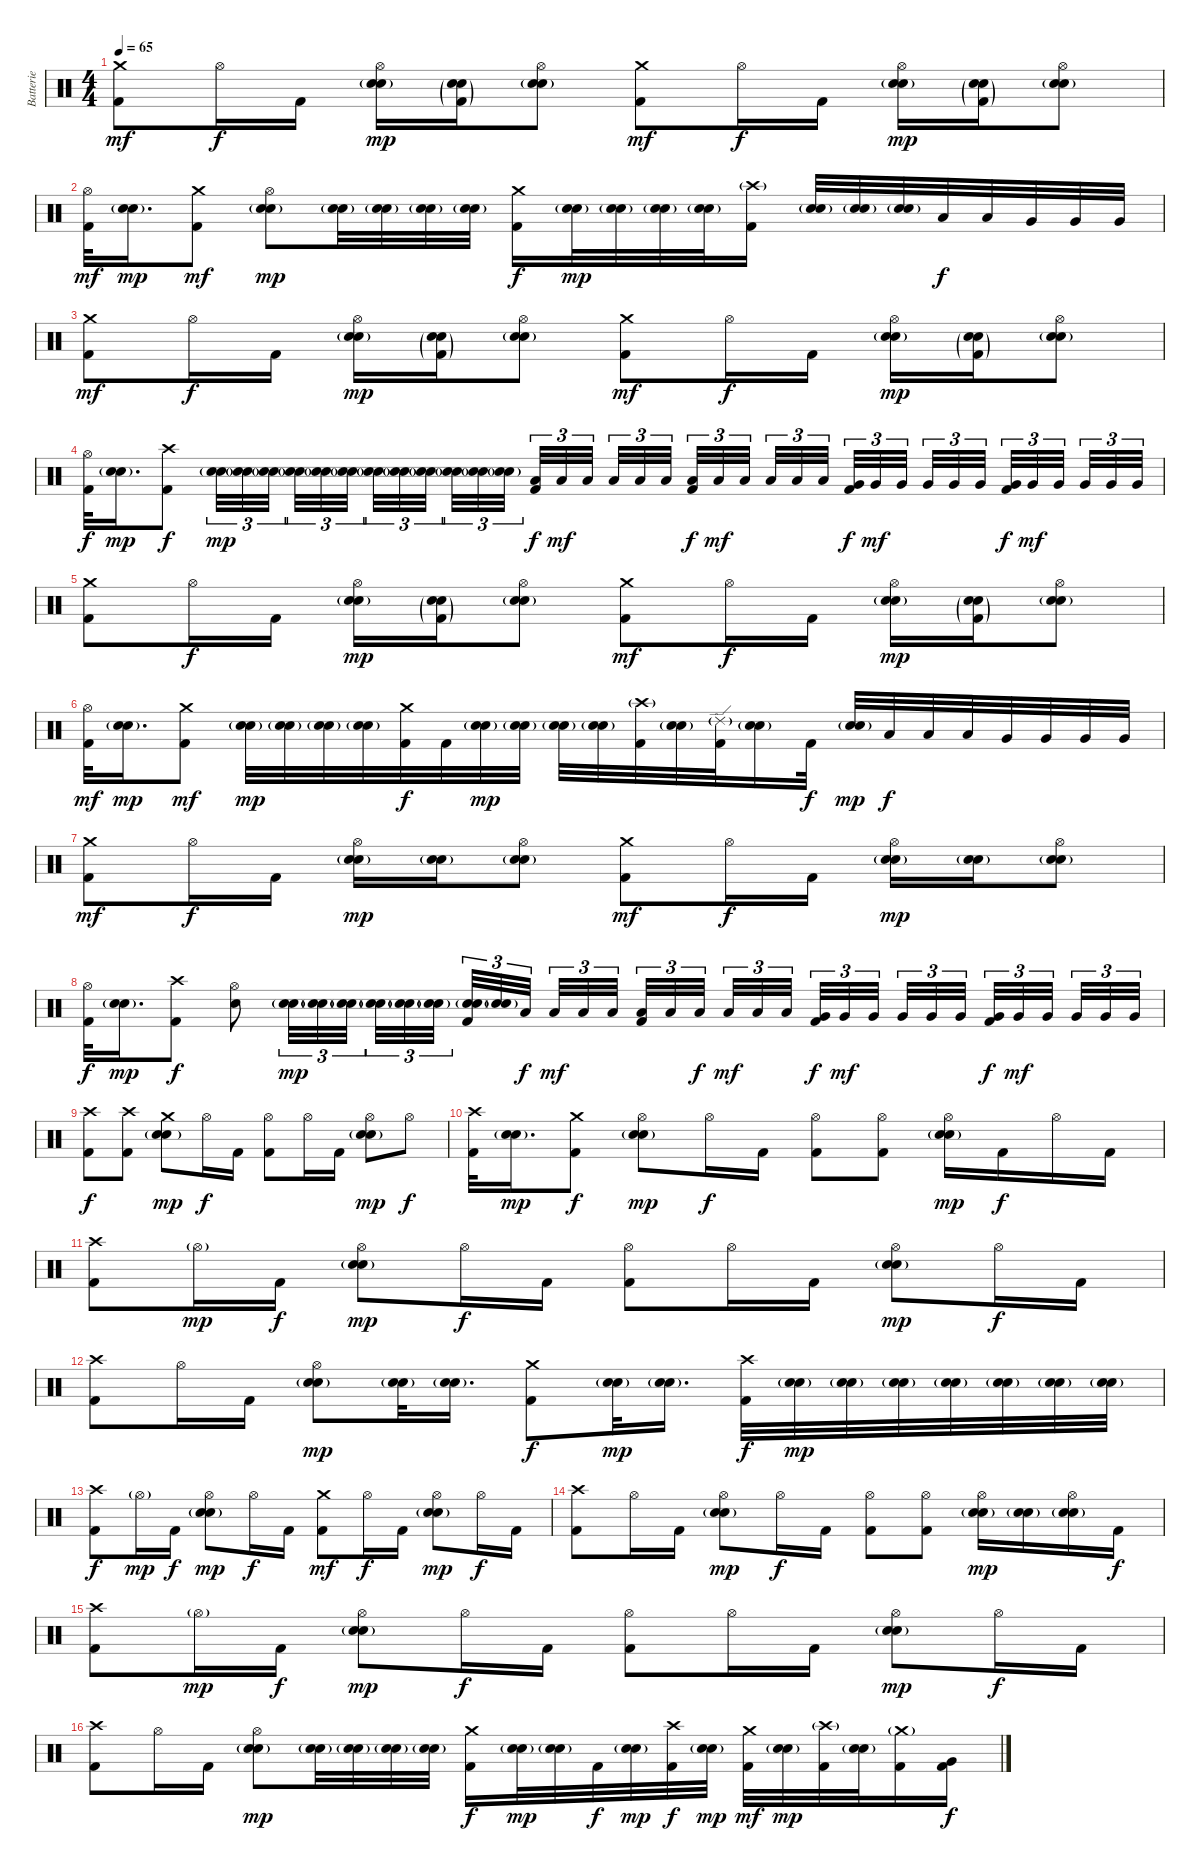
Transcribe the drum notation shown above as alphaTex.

\track ("Batterie" "Batterie") {instrument percussion}
\staff {score}
\articulation defaults
\ts (4 4)
\tempo 65
\clef neutral
\ks c
("Crash medium (hit)" "Kick (hit) 2").8{dy mf} "Hi-Hat (open)".16{dy f} "Kick (hit) 2".16 ("Hi-Hat (open)" "Electric Snare (hit)" "Snare (hit) 2"{g}).16{dy mp} ("Electric Snare (hit)" "Snare (hit) 2"{g} "Kick (hit) 2"{g}).16 ("Hi-Hat (open)" "Electric Snare (hit)" "Snare (hit) 2"{g}).8 ("Crash medium (hit)" "Kick (hit) 2").8{dy mf} "Hi-Hat (open)".16{dy f} "Kick (hit) 2".16 ("Hi-Hat (open)" "Electric Snare (hit)" "Snare (hit) 2"{g}).16{dy mp} ("Electric Snare (hit)" "Snare (hit) 2"{g} "Kick (hit) 2"{g}).16 ("Hi-Hat (open)" "Electric Snare (hit)" "Snare (hit) 2"{g}).8 |
("Hi-Hat (open)" "Kick (hit) 2").32{dy mf} ("Electric Snare (hit)" "Snare (hit) 2"{g}).16{d dy mp} ("Crash medium (hit)" "Kick (hit) 2").8{dy mf} ("Hi-Hat (open)" "Electric Snare (hit)" "Snare (hit) 2"{g}).8{dy mp} ("Electric Snare (hit)" "Snare (hit) 2"{g}).32 ("Electric Snare (hit)" "Snare (hit) 2"{g}).32 ("Electric Snare (hit)" "Snare (hit) 2"{g}).32 ("Electric Snare (hit)" "Snare (hit) 2"{g}).32 ("Crash medium (hit)" "Kick (hit) 2").16{dy f} ("Electric Snare (hit)" "Snare (hit) 2"{g}).32{dy mp} ("Electric Snare (hit)" "Snare (hit) 2"{g}).32 ("Electric Snare (hit)" "Snare (hit) 2"{g}).32 ("Electric Snare (hit)" "Snare (hit) 2"{g}).32 ("Crash high (hit)"{g} "Kick (hit) 2").16 ("Electric Snare (hit)" "Snare (hit) 2"{g}).32 ("Electric Snare (hit)" "Snare (hit) 2"{g}).32 ("Electric Snare (hit)" "Snare (hit) 2"{g}).32 "Low Tom (hit)".32{dy f} "Low Tom (hit)".32 "Very Low Tom (hit)".32 "Very Low Tom (hit)".32 "Very Low Tom (hit)".32 |
("Crash medium (hit)" "Kick (hit) 2").8{dy mf} "Hi-Hat (open)".16{dy f} "Kick (hit) 2".16 ("Hi-Hat (open)" "Electric Snare (hit)" "Snare (hit) 2"{g}).16{dy mp} ("Electric Snare (hit)" "Snare (hit) 2"{g} "Kick (hit) 2"{g}).16 ("Hi-Hat (open)" "Electric Snare (hit)" "Snare (hit) 2"{g}).8 ("Crash medium (hit)" "Kick (hit) 2").8{dy mf} "Hi-Hat (open)".16{dy f} "Kick (hit) 2".16 ("Hi-Hat (open)" "Electric Snare (hit)" "Snare (hit) 2"{g}).16{dy mp} ("Electric Snare (hit)" "Snare (hit) 2"{g} "Kick (hit) 2"{g}).16 ("Hi-Hat (open)" "Electric Snare (hit)" "Snare (hit) 2"{g}).8 |
("Hi-Hat (open)" "Kick (hit) 2").32{dy f} ("Electric Snare (hit)" "Snare (hit) 2"{g}).16{d dy mp} ("Crash high (hit)" "Kick (hit) 2").8{dy f} ("Electric Snare (hit)" "Snare (hit) 2"{g}).32{tu (3 2) dy mp} ("Electric Snare (hit)" "Snare (hit) 2"{g}).32{tu (3 2)} ("Electric Snare (hit)" "Snare (hit) 2"{g}).32{tu (3 2)} ("Electric Snare (hit)" "Snare (hit) 2"{g}).32{tu (3 2)} ("Electric Snare (hit)" "Snare (hit) 2"{g}).32{tu (3 2)} ("Electric Snare (hit)" "Snare (hit) 2"{g}).32{tu (3 2)} ("Electric Snare (hit)" "Snare (hit) 2"{g}).32{tu (3 2)} ("Electric Snare (hit)" "Snare (hit) 2"{g}).32{tu (3 2)} ("Electric Snare (hit)" "Snare (hit) 2"{g}).32{tu (3 2)} ("Electric Snare (hit)" "Snare (hit) 2"{g}).32{tu (3 2)} ("Electric Snare (hit)" "Snare (hit) 2"{g}).32{tu (3 2)} ("Electric Snare (hit)" "Snare (hit) 2"{g}).32{tu (3 2)} ("Low Tom (hit)" "Kick (hit) 2").32{tu (3 2) dy f} "Low Tom (hit)".32{tu (3 2) dy mf} "Low Tom (hit)".32{tu (3 2)} "Low Tom (hit)".32{tu (3 2)} "Low Tom (hit)".32{tu (3 2)} "Low Tom (hit)".32{tu (3 2)} ("Low Tom (hit)" "Kick (hit) 2").32{tu (3 2) dy f} "Low Tom (hit)".32{tu (3 2) dy mf} "Low Tom (hit)".32{tu (3 2)} "Low Tom (hit)".32{tu (3 2)} "Low Tom (hit)".32{tu (3 2)} "Low Tom (hit)".32{tu (3 2)} ("Very Low Tom (hit)" "Kick (hit) 2").32{tu (3 2) dy f} "Very Low Tom (hit)".32{tu (3 2) dy mf} "Very Low Tom (hit)".32{tu (3 2)} "Very Low Tom (hit)".32{tu (3 2)} "Very Low Tom (hit)".32{tu (3 2)} "Very Low Tom (hit)".32{tu (3 2)} ("Very Low Tom (hit)" "Kick (hit) 2").32{tu (3 2) dy f} "Very Low Tom (hit)".32{tu (3 2) dy mf} "Very Low Tom (hit)".32{tu (3 2)} "Very Low Tom (hit)".32{tu (3 2)} "Very Low Tom (hit)".32{tu (3 2)} "Very Low Tom (hit)".32{tu (3 2)} |
("Crash medium (hit)" "Kick (hit) 2").8 "Hi-Hat (open)".16{dy f} "Kick (hit) 2".16 ("Hi-Hat (open)" "Electric Snare (hit)" "Snare (hit) 2"{g}).16{dy mp} ("Electric Snare (hit)" "Snare (hit) 2"{g} "Kick (hit) 2"{g}).16 ("Hi-Hat (open)" "Electric Snare (hit)" "Snare (hit) 2"{g}).8 ("Crash medium (hit)" "Kick (hit) 2").8{dy mf} "Hi-Hat (open)".16{dy f} "Kick (hit) 2".16 ("Hi-Hat (open)" "Electric Snare (hit)" "Snare (hit) 2"{g}).16{dy mp} ("Electric Snare (hit)" "Snare (hit) 2"{g} "Kick (hit) 2"{g}).16 ("Hi-Hat (open)" "Electric Snare (hit)" "Snare (hit) 2"{g}).8 |
("Hi-Hat (open)" "Kick (hit) 2").32{dy mf} ("Electric Snare (hit)" "Snare (hit) 2"{g}).16{d dy mp} ("Crash medium (hit)" "Kick (hit) 2").8{dy mf} ("Electric Snare (hit)" "Snare (hit) 2"{g}).32{dy mp} ("Electric Snare (hit)" "Snare (hit) 2"{g}).32 ("Electric Snare (hit)" "Snare (hit) 2"{g}).32 ("Electric Snare (hit)" "Snare (hit) 2"{g}).32 ("Crash medium (hit)" "Kick (hit) 2").32{dy f} "Kick (hit) 2".32 ("Electric Snare (hit)" "Snare (hit) 2"{g}).32{dy mp} ("Electric Snare (hit)" "Snare (hit) 2"{g}).32 ("Electric Snare (hit)" "Snare (hit) 2"{g}).32 ("Electric Snare (hit)" "Snare (hit) 2"{g}).32 ("Crash high (hit)"{g} "Kick (hit) 2").32 ("Electric Snare (hit)" "Snare (hit) 2"{g}).32 ("Ride (edge) 2"{g} "Kick (hit) 2").32 ("Electric Snare (hit)" "Snare (hit) 2"{g}).16 "Kick (hit) 2".32{dy f} ("Electric Snare (hit)" "Snare (hit) 2"{g}).32{dy mp} "Low Tom (hit)".32{dy f} "Low Tom (hit)".32 "Low Tom (hit)".32 "Very Low Tom (hit)".32 "Very Low Tom (hit)".32 "Very Low Tom (hit)".32 "Very Low Tom (hit)".32 |
("Crash medium (hit)" "Kick (hit) 2").8{dy mf} "Hi-Hat (open)".16{dy f} "Kick (hit) 2".16 ("Hi-Hat (open)" "Electric Snare (hit)" "Snare (hit) 2"{g}).16{dy mp} ("Electric Snare (hit)" "Snare (hit) 2"{g}).16 ("Hi-Hat (open)" "Electric Snare (hit)" "Snare (hit) 2"{g}).8 ("Crash medium (hit)" "Kick (hit) 2").8{dy mf} "Hi-Hat (open)".16{dy f} "Kick (hit) 2".16 ("Hi-Hat (open)" "Electric Snare (hit)" "Snare (hit) 2"{g}).16{dy mp} ("Electric Snare (hit)" "Snare (hit) 2"{g}).16 ("Hi-Hat (open)" "Electric Snare (hit)" "Snare (hit) 2"{g}).8 |
("Hi-Hat (open)" "Kick (hit) 2").32{dy f} ("Electric Snare (hit)" "Snare (hit) 2"{g}).16{d dy mp} ("Crash high (hit)" "Kick (hit) 2").8{dy f} ("Hi-Hat (open)" "Electric Snare (hit)").8 ("Electric Snare (hit)" "Snare (hit) 2"{g}).32{tu (3 2) dy mp} ("Electric Snare (hit)" "Snare (hit) 2"{g}).32{tu (3 2)} ("Electric Snare (hit)" "Snare (hit) 2"{g}).32{tu (3 2)} ("Electric Snare (hit)" "Snare (hit) 2"{g}).32{tu (3 2)} ("Electric Snare (hit)" "Snare (hit) 2"{g}).32{tu (3 2)} ("Electric Snare (hit)" "Snare (hit) 2"{g}).32{tu (3 2)} ("Electric Snare (hit)" "Snare (hit) 2"{g} "Kick (hit) 2").32{tu (3 2)} ("Electric Snare (hit)" "Snare (hit) 2"{g}).32{tu (3 2)} "Low Tom (hit)".32{tu (3 2) dy f} "Low Tom (hit)".32{tu (3 2) dy mf} "Low Tom (hit)".32{tu (3 2)} "Low Tom (hit)".32{tu (3 2)} ("Low Tom (hit)" "Kick (hit) 2").32{tu (3 2)} "Low Tom (hit)".32{tu (3 2)} "Low Tom (hit)".32{tu (3 2) dy f} "Low Tom (hit)".32{tu (3 2) dy mf} "Low Tom (hit)".32{tu (3 2)} "Low Tom (hit)".32{tu (3 2)} ("Very Low Tom (hit)" "Kick (hit) 2").32{tu (3 2) dy f} "Very Low Tom (hit)".32{tu (3 2) dy mf} "Very Low Tom (hit)".32{tu (3 2)} "Very Low Tom (hit)".32{tu (3 2)} "Very Low Tom (hit)".32{tu (3 2)} "Very Low Tom (hit)".32{tu (3 2)} ("Very Low Tom (hit)" "Kick (hit) 2").32{tu (3 2) dy f} "Very Low Tom (hit)".32{tu (3 2) dy mf} "Very Low Tom (hit)".32{tu (3 2)} "Very Low Tom (hit)".32{tu (3 2)} "Very Low Tom (hit)".32{tu (3 2)} "Very Low Tom (hit)".32{tu (3 2)} |
("Crash high (hit)" "Kick (hit) 2").8{dy f} ("Crash high (hit)" "Kick (hit) 2").8 ("Crash medium (hit)" "Electric Snare (hit)" "Snare (hit) 2"{g}).8{dy mp} "Hi-Hat (open)".16{dy f} "Kick (hit) 2".16 ("Hi-Hat (open)" "Kick (hit) 2").8 "Hi-Hat (open)".16 "Kick (hit) 2".16 ("Hi-Hat (open)" "Electric Snare (hit)" "Snare (hit) 2"{g}).8{dy mp} "Hi-Hat (open)".8{dy f} |
("Crash high (hit)" "Kick (hit) 2").32 ("Electric Snare (hit)" "Snare (hit) 2"{g}).16{d dy mp} ("Crash medium (hit)" "Kick (hit) 2").8{dy f} ("Hi-Hat (open)" "Electric Snare (hit)" "Snare (hit) 2"{g}).8{dy mp} "Hi-Hat (open)".16{dy f} "Kick (hit) 2".16 ("Hi-Hat (open)" "Kick (hit) 2").8 ("Hi-Hat (open)" "Kick (hit) 2").8 ("Hi-Hat (open)" "Electric Snare (hit)" "Snare (hit) 2"{g}).16{dy mp} "Kick (hit) 2".16{dy f} "Hi-Hat (open)".16 "Kick (hit) 2".16 |
("Crash high (hit)" "Kick (hit) 2").8 "Hi-Hat (open)"{g}.16{dy mp} "Kick (hit) 2".16{dy f} ("Hi-Hat (open)" "Electric Snare (hit)" "Snare (hit) 2"{g}).8{dy mp} "Hi-Hat (open)".16{dy f} "Kick (hit) 2".16 ("Hi-Hat (open)" "Kick (hit) 2").8 "Hi-Hat (open)".16 "Kick (hit) 2".16 ("Hi-Hat (open)" "Electric Snare (hit)" "Snare (hit) 2"{g}).8{dy mp} "Hi-Hat (open)".16{dy f} "Kick (hit) 2".16 |
("Crash high (hit)" "Kick (hit) 2").8 "Hi-Hat (open)".16 "Kick (hit) 2".16 ("Hi-Hat (open)" "Electric Snare (hit)" "Snare (hit) 2"{g}).8{dy mp} ("Electric Snare (hit)" "Snare (hit) 2"{g}).32 ("Electric Snare (hit)" "Snare (hit) 2"{g}).16{d} ("Crash medium (hit)" "Kick (hit) 2").8{dy f} ("Electric Snare (hit)" "Snare (hit) 2"{g}).32{dy mp} ("Electric Snare (hit)" "Snare (hit) 2"{g}).16{d} ("Crash high (hit)" "Kick (hit) 2").32{dy f} ("Electric Snare (hit)" "Snare (hit) 2"{g}).32{dy mp} ("Electric Snare (hit)" "Snare (hit) 2"{g}).32 ("Electric Snare (hit)" "Snare (hit) 2"{g}).32 ("Electric Snare (hit)" "Snare (hit) 2"{g}).32 ("Electric Snare (hit)" "Snare (hit) 2"{g}).32 ("Electric Snare (hit)" "Snare (hit) 2"{g}).32 ("Electric Snare (hit)" "Snare (hit) 2"{g}).32 |
("Crash high (hit)" "Kick (hit) 2").8{dy f} "Hi-Hat (open)"{g}.16{dy mp} "Kick (hit) 2".16{dy f} ("Hi-Hat (open)" "Electric Snare (hit)" "Snare (hit) 2"{g}).8{dy mp} "Hi-Hat (open)".16{dy f} "Kick (hit) 2".16 ("Crash medium (hit)" "Kick (hit) 2").8{dy mf} "Hi-Hat (open)".16{dy f} "Kick (hit) 2".16 ("Hi-Hat (open)" "Electric Snare (hit)" "Snare (hit) 2"{g}).8{dy mp} "Hi-Hat (open)".16{dy f} "Kick (hit) 2".16 |
("Crash high (hit)" "Kick (hit) 2").8 "Hi-Hat (open)".16 "Kick (hit) 2".16 ("Hi-Hat (open)" "Electric Snare (hit)" "Snare (hit) 2"{g}).8{dy mp} "Hi-Hat (open)".16{dy f} "Kick (hit) 2".16 ("Hi-Hat (open)" "Kick (hit) 2").8 ("Hi-Hat (open)" "Kick (hit) 2").8 ("Hi-Hat (open)" "Electric Snare (hit)" "Snare (hit) 2"{g}).16{dy mp} ("Electric Snare (hit)" "Snare (hit) 2"{g}).16 ("Hi-Hat (open)" "Electric Snare (hit)" "Snare (hit) 2"{g}).16 "Kick (hit) 2".16{dy f} |
("Crash high (hit)" "Kick (hit) 2").8 "Hi-Hat (open)"{g}.16{dy mp} "Kick (hit) 2".16{dy f} ("Hi-Hat (open)" "Electric Snare (hit)" "Snare (hit) 2"{g}).8{dy mp} "Hi-Hat (open)".16{dy f} "Kick (hit) 2".16 ("Hi-Hat (open)" "Kick (hit) 2").8 "Hi-Hat (open)".16 "Kick (hit) 2".16 ("Hi-Hat (open)" "Electric Snare (hit)" "Snare (hit) 2"{g}).8{dy mp} "Hi-Hat (open)".16{dy f} "Kick (hit) 2".16 |
("Crash high (hit)" "Kick (hit) 2").8 "Hi-Hat (open)".16 "Kick (hit) 2".16 ("Hi-Hat (open)" "Electric Snare (hit)" "Snare (hit) 2"{g}).8{dy mp} ("Electric Snare (hit)" "Snare (hit) 2"{g}).32 ("Electric Snare (hit)" "Snare (hit) 2"{g}).32 ("Electric Snare (hit)" "Snare (hit) 2"{g}).32 ("Electric Snare (hit)" "Snare (hit) 2"{g}).32 ("Crash medium (hit)" "Kick (hit) 2").16{dy f} ("Electric Snare (hit)" "Snare (hit) 2"{g}).32{dy mp} ("Electric Snare (hit)" "Snare (hit) 2"{g}).32 "Kick (hit) 2".32{dy f} ("Electric Snare (hit)" "Snare (hit) 2"{g}).32{dy mp} ("Crash high (hit)" "Kick (hit) 2").32{dy f} ("Electric Snare (hit)" "Snare (hit) 2"{g}).32{dy mp} ("Crash medium (hit)" "Kick (hit) 2").32{dy mf} ("Electric Snare (hit)" "Snare (hit) 2"{g}).32{dy mp} ("Crash high (hit)"{g} "Kick (hit) 2").32 ("Electric Snare (hit)" "Snare (hit) 2"{g}).32 ("Crash medium (hit)"{g} "Kick (hit) 2").16 ("Very Low Tom (hit)" "Kick (hit) 2").16{dy f}
